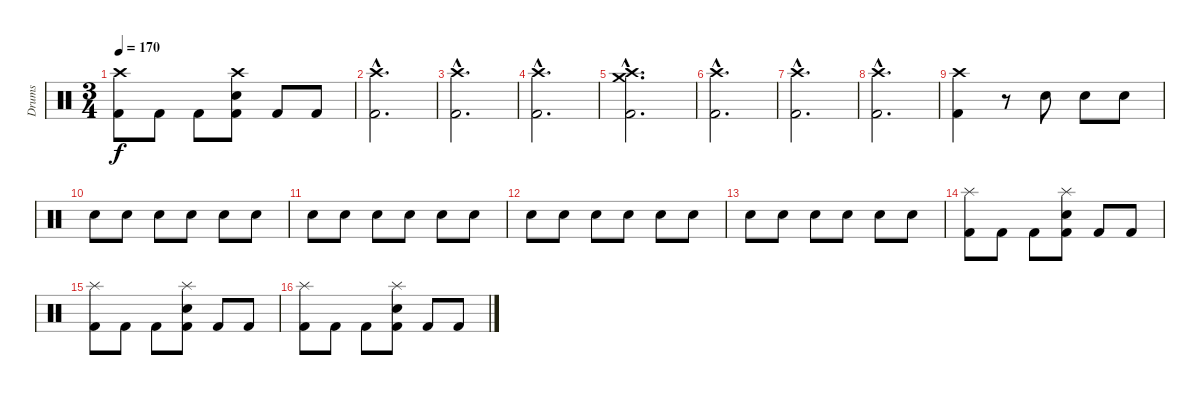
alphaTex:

\track ("Drums" "Drums") {instrument percussion}
\staff {score}
\articulation defaults
\ts (3 4)
\tempo 170
\clef neutral
\ks c
("Crash high (hit)" "Kick (hit) 2").8{dy f} "Kick (hit) 2".8 "Kick (hit) 2".8 ("Crash high (hit)" "Electric Snare (hit)" "Kick (hit) 2").8 "Kick (hit) 2".8 "Kick (hit) 2".8 |
("Crash high (hit)"{hac} "Kick (hit) 2"{hac}).2{d} |
("Crash high (hit)"{hac} "Kick (hit) 2"{hac}).2{d} |
("Crash high (hit)"{hac} "Kick (hit) 2"{hac}).2{d} |
("Crash medium (hit)"{hac} "Crash high (hit)"{hac} "Kick (hit) 2"{hac}).2{d} |
("Crash high (hit)"{hac} "Kick (hit) 2"{hac}).2{d} |
("Crash high (hit)"{hac} "Kick (hit) 2"{hac}).2{d} |
("Crash high (hit)"{hac} "Kick (hit) 2"{hac}).2{d} |
("Crash high (hit)" "Kick (hit) 2").4 r.8 "Electric Snare (hit)".8 "Electric Snare (hit)".8 "Electric Snare (hit)".8 |
"Snare (hit) 2".8{volume 5} "Snare (hit) 2".8{volume 16} "Snare (hit) 2".8 "Snare (hit) 2".8 "Snare (hit) 2".8 "Snare (hit) 2".8 |
"Snare (hit) 2".8 "Snare (hit) 2".8 "Snare (hit) 2".8 "Snare (hit) 2".8 "Snare (hit) 2".8 "Snare (hit) 2".8 |
"Snare (hit) 2".8 "Snare (hit) 2".8 "Snare (hit) 2".8 "Snare (hit) 2".8 "Snare (hit) 2".8 "Snare (hit) 2".8 |
"Snare (hit) 2".8 "Snare (hit) 2".8 "Snare (hit) 2".8 "Snare (hit) 2".8 "Snare (hit) 2".8 "Snare (hit) 2".8 |
("Splash (hit)" "Kick (hit) 2").8 "Kick (hit) 2".8 "Kick (hit) 2".8 ("Splash (hit)" "Electric Snare (hit)" "Kick (hit) 2").8 "Kick (hit) 2".8 "Kick (hit) 2".8 |
("Splash (hit)" "Kick (hit) 2").8 "Kick (hit) 2".8 "Kick (hit) 2".8 ("Splash (hit)" "Electric Snare (hit)" "Kick (hit) 2").8 "Kick (hit) 2".8 "Kick (hit) 2".8 |
("Splash (hit)" "Kick (hit) 2").8 "Kick (hit) 2".8 "Kick (hit) 2".8 ("Splash (hit)" "Electric Snare (hit)" "Kick (hit) 2").8 "Kick (hit) 2".8 "Kick (hit) 2".8
